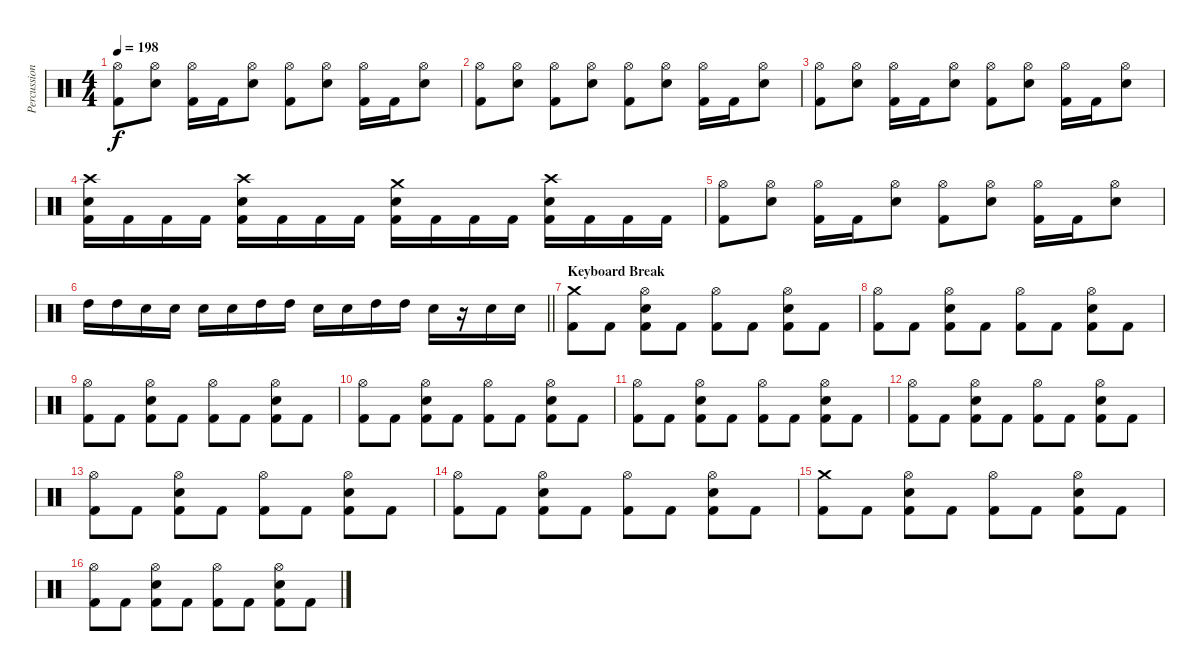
\track ("Percussion" "Percussion") {instrument percussion}
\staff {score}
\articulation defaults
\ts (4 4)
\tempo 198
\clef neutral
\ks c
("Hi-Hat (open)" "Kick (hit) 2").8{dy f} ("Hi-Hat (open)" "Electric Snare (hit)").8 ("Hi-Hat (open)" "Kick (hit) 2").16 "Kick (hit) 2".16 ("Hi-Hat (open)" "Electric Snare (hit)").8 ("Hi-Hat (open)" "Kick (hit) 2").8 ("Hi-Hat (open)" "Electric Snare (hit)").8 ("Hi-Hat (open)" "Kick (hit) 2").16 "Kick (hit) 2".16 ("Hi-Hat (open)" "Electric Snare (hit)").8 |
("Hi-Hat (open)" "Kick (hit) 2").8 ("Hi-Hat (open)" "Electric Snare (hit)").8 ("Hi-Hat (open)" "Kick (hit) 2").8 ("Hi-Hat (open)" "Electric Snare (hit)").8 ("Hi-Hat (open)" "Kick (hit) 2").8 ("Hi-Hat (open)" "Electric Snare (hit)").8 ("Hi-Hat (open)" "Kick (hit) 2").16 "Kick (hit) 2".16 ("Hi-Hat (open)" "Electric Snare (hit)").8 |
("Hi-Hat (open)" "Kick (hit) 2").8 ("Hi-Hat (open)" "Electric Snare (hit)").8 ("Hi-Hat (open)" "Kick (hit) 2").16 "Kick (hit) 2".16 ("Hi-Hat (open)" "Electric Snare (hit)").8 ("Hi-Hat (open)" "Kick (hit) 2").8 ("Hi-Hat (open)" "Electric Snare (hit)").8 ("Hi-Hat (open)" "Kick (hit) 2").16 "Kick (hit) 2".16 ("Hi-Hat (open)" "Electric Snare (hit)").8 |
("Crash high (hit)" "Electric Snare (hit)" "Kick (hit) 2").16 "Kick (hit) 2".16 "Kick (hit) 2".16 "Kick (hit) 2".16 ("Crash high (hit)" "Electric Snare (hit)" "Kick (hit) 2").16 "Kick (hit) 2".16 "Kick (hit) 2".16 "Kick (hit) 2".16 ("Crash medium (hit)" "Electric Snare (hit)" "Kick (hit) 2").16 "Kick (hit) 2".16 "Kick (hit) 2".16 "Kick (hit) 2".16 ("Crash high (hit)" "Electric Snare (hit)" "Kick (hit) 2").16 "Kick (hit) 2".16 "Kick (hit) 2".16 "Kick (hit) 2".16 |
("Hi-Hat (open)" "Kick (hit) 2").8 ("Hi-Hat (open)" "Electric Snare (hit)").8 ("Hi-Hat (open)" "Kick (hit) 2").16 "Kick (hit) 2".16 ("Hi-Hat (open)" "Electric Snare (hit)").8 ("Hi-Hat (open)" "Kick (hit) 2").8 ("Hi-Hat (open)" "Electric Snare (hit)").8 ("Hi-Hat (open)" "Kick (hit) 2").16 "Kick (hit) 2".16 ("Hi-Hat (open)" "Electric Snare (hit)").8 |
\barLineRight lightlight "High Tom (hit)".16 "High Tom (hit)".16 "Electric Snare (hit)".16 "Electric Snare (hit)".16 "Electric Snare (hit)".16 "Electric Snare (hit)".16 "High Tom (hit)".16 "High Tom (hit)".16 "Electric Snare (hit)".16 "Electric Snare (hit)".16 "High Tom (hit)".16 "High Tom (hit)".16 "Electric Snare (hit)".16
r.16 "Electric Snare (hit)".16 "Electric Snare (hit)".16 |
\section ("" "Keyboard Break")
("Crash medium (hit)" "Kick (hit) 2").8 "Kick (hit) 2".8 ("Hi-Hat (open)" "Electric Snare (hit)" "Kick (hit) 2").8 "Kick (hit) 2".8 ("Hi-Hat (open)" "Kick (hit) 2").8 "Kick (hit) 2".8 ("Hi-Hat (open)" "Electric Snare (hit)" "Kick (hit) 2").8 "Kick (hit) 2".8 |
("Hi-Hat (open)" "Kick (hit) 2").8 "Kick (hit) 2".8 ("Hi-Hat (open)" "Electric Snare (hit)" "Kick (hit) 2").8 "Kick (hit) 2".8 ("Hi-Hat (open)" "Kick (hit) 2").8 "Kick (hit) 2".8 ("Hi-Hat (open)" "Electric Snare (hit)" "Kick (hit) 2").8 "Kick (hit) 2".8 |
("Hi-Hat (open)" "Kick (hit) 2").8 "Kick (hit) 2".8 ("Hi-Hat (open)" "Electric Snare (hit)" "Kick (hit) 2").8 "Kick (hit) 2".8 ("Hi-Hat (open)" "Kick (hit) 2").8 "Kick (hit) 2".8 ("Hi-Hat (open)" "Electric Snare (hit)" "Kick (hit) 2").8 "Kick (hit) 2".8 |
("Hi-Hat (open)" "Kick (hit) 2").8 "Kick (hit) 2".8 ("Hi-Hat (open)" "Electric Snare (hit)" "Kick (hit) 2").8 "Kick (hit) 2".8 ("Hi-Hat (open)" "Kick (hit) 2").8 "Kick (hit) 2".8 ("Hi-Hat (open)" "Electric Snare (hit)" "Kick (hit) 2").8 "Kick (hit) 2".8 |
("Hi-Hat (open)" "Kick (hit) 2").8 "Kick (hit) 2".8 ("Hi-Hat (open)" "Electric Snare (hit)" "Kick (hit) 2").8 "Kick (hit) 2".8 ("Hi-Hat (open)" "Kick (hit) 2").8 "Kick (hit) 2".8 ("Hi-Hat (open)" "Electric Snare (hit)" "Kick (hit) 2").8 "Kick (hit) 2".8 |
("Hi-Hat (open)" "Kick (hit) 2").8 "Kick (hit) 2".8 ("Hi-Hat (open)" "Electric Snare (hit)" "Kick (hit) 2").8 "Kick (hit) 2".8 ("Hi-Hat (open)" "Kick (hit) 2").8 "Kick (hit) 2".8 ("Hi-Hat (open)" "Electric Snare (hit)" "Kick (hit) 2").8 "Kick (hit) 2".8 |
("Hi-Hat (open)" "Kick (hit) 2").8 "Kick (hit) 2".8 ("Hi-Hat (open)" "Electric Snare (hit)" "Kick (hit) 2").8 "Kick (hit) 2".8 ("Hi-Hat (open)" "Kick (hit) 2").8 "Kick (hit) 2".8 ("Hi-Hat (open)" "Electric Snare (hit)" "Kick (hit) 2").8 "Kick (hit) 2".8 |
("Hi-Hat (open)" "Kick (hit) 2").8 "Kick (hit) 2".8 ("Hi-Hat (open)" "Electric Snare (hit)" "Kick (hit) 2").8 "Kick (hit) 2".8 ("Hi-Hat (open)" "Kick (hit) 2").8 "Kick (hit) 2".8 ("Hi-Hat (open)" "Electric Snare (hit)" "Kick (hit) 2").8 "Kick (hit) 2".8 |
("Crash medium (hit)" "Kick (hit) 2").8 "Kick (hit) 2".8 ("Hi-Hat (open)" "Electric Snare (hit)" "Kick (hit) 2").8 "Kick (hit) 2".8 ("Hi-Hat (open)" "Kick (hit) 2").8 "Kick (hit) 2".8 ("Hi-Hat (open)" "Electric Snare (hit)" "Kick (hit) 2").8 "Kick (hit) 2".8 |
("Hi-Hat (open)" "Kick (hit) 2").8 "Kick (hit) 2".8 ("Hi-Hat (open)" "Electric Snare (hit)" "Kick (hit) 2").8 "Kick (hit) 2".8 ("Hi-Hat (open)" "Kick (hit) 2").8 "Kick (hit) 2".8 ("Hi-Hat (open)" "Electric Snare (hit)" "Kick (hit) 2").8 "Kick (hit) 2".8
